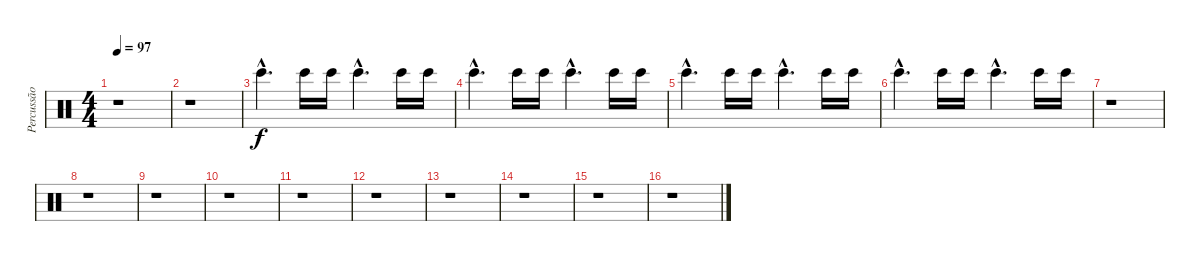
\track ("Percussão" "Percussão") {instrument percussion}
\staff {score}
\articulation defaults
\ts (4 4)
\tempo 97
\clef neutral
\ks c
r.1{dy f} |
r.1 |
"Bongo High (hit)"{hac}.4{d} "Bongo High (hit)".16 "Bongo High (hit)".16 "Bongo High (hit)"{hac}.4{d} "Bongo High (hit)".16 "Bongo High (hit)".16 |
"Bongo High (hit)"{hac}.4{d} "Bongo High (hit)".16 "Bongo High (hit)".16 "Bongo High (hit)"{hac}.4{d} "Bongo High (hit)".16 "Bongo High (hit)".16 |
"Bongo High (hit)"{hac}.4{d} "Bongo High (hit)".16 "Bongo High (hit)".16 "Bongo High (hit)"{hac}.4{d} "Bongo High (hit)".16 "Bongo High (hit)".16 |
"Bongo High (hit)"{hac}.4{d} "Bongo High (hit)".16 "Bongo High (hit)".16 "Bongo High (hit)"{hac}.4{d} "Bongo High (hit)".16 "Bongo High (hit)".16 |
r.1 |
r.1 |
r.1 |
r.1 |
r.1 |
r.1 |
r.1 |
r.1 |
r.1 |
r.1
